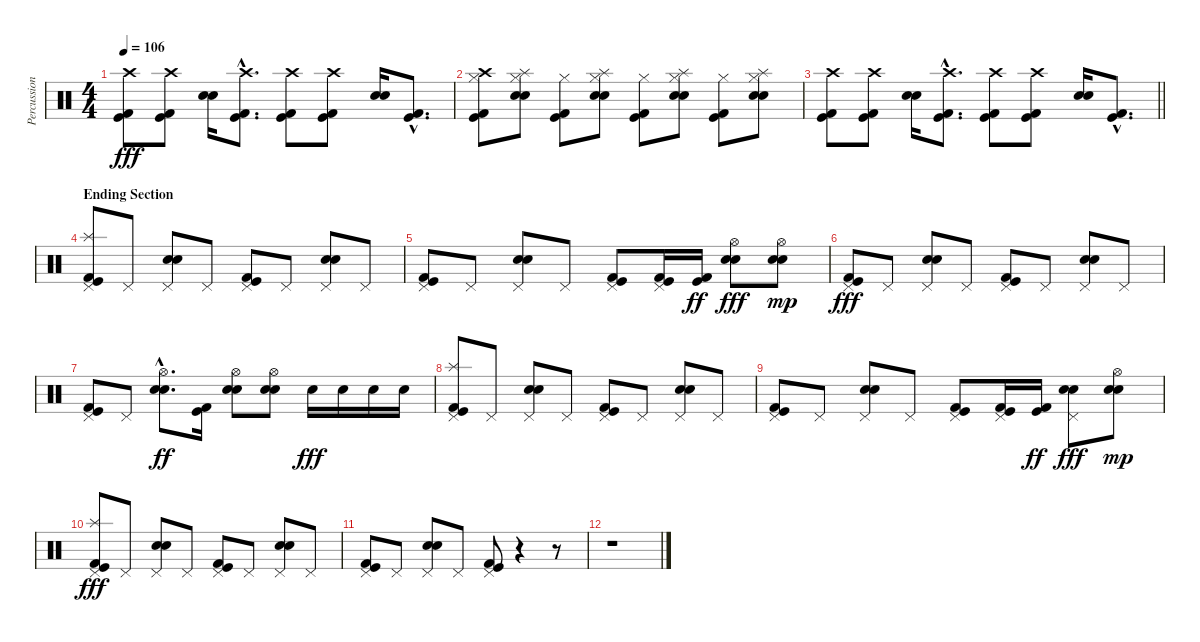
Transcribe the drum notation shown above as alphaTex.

\track ("Percussion" "Percussion") {instrument percussion}
\staff {score}
\articulation defaults
\ts (4 4)
\tempo 106
\clef neutral
\ks c
("Crash high (hit)" "Kick (hit)" "Kick (hit) 2").8{dy fff} ("Crash high (hit)" "Kick (hit)" "Kick (hit) 2").8 ("Snare (hit) 2" "Electric Snare (hit)").16 ("Crash high (hit)"{hac} "Kick (hit)"{hac} "Kick (hit) 2"{hac}).8{d} ("Crash high (hit)" "Kick (hit)" "Kick (hit) 2").8 ("Crash high (hit)" "Kick (hit)" "Kick (hit) 2").8 ("Snare (hit) 2" "Electric Snare (hit)").16 ("Kick (hit)"{hac} "Kick (hit) 2"{hac}).8{d} |
("Crash high (hit)" "Hi-Hat (closed)" "Kick (hit)" "Kick (hit) 2").8 ("Splash (hit)" "Electric Snare (hit)" "Snare (hit) 2" "Hi-Hat (closed)").8 ("Hi-Hat (closed)" "Kick (hit)" "Kick (hit) 2").8 ("Splash (hit)" "Electric Snare (hit)" "Snare (hit) 2" "Hi-Hat (closed)").8 ("Hi-Hat (closed)" "Kick (hit)" "Kick (hit) 2").8 ("Splash (hit)" "Electric Snare (hit)" "Snare (hit) 2" "Hi-Hat (closed)").8 ("Hi-Hat (closed)" "Kick (hit)" "Kick (hit) 2").8 ("Splash (hit)" "Electric Snare (hit)" "Snare (hit) 2" "Hi-Hat (closed)").8 |
\barLineRight lightlight
("Crash high (hit)" "Kick (hit)" "Kick (hit) 2").8 ("Crash high (hit)" "Kick (hit)" "Kick (hit) 2").8 ("Snare (hit) 2" "Electric Snare (hit)").16 ("Crash high (hit)"{hac} "Kick (hit)"{hac} "Kick (hit) 2"{hac}).8{d} ("Crash high (hit)" "Kick (hit)" "Kick (hit) 2").8 ("Crash high (hit)" "Kick (hit)" "Kick (hit) 2").8 ("Snare (hit) 2" "Electric Snare (hit)").16 ("Kick (hit)"{hac} "Kick (hit) 2"{hac}).8{d} |
\section ("" "Ending Section")
("Splash (hit)" "Pedal Hi-Hat (hit)" "Kick (hit)" "Kick (hit) 2").8 "Pedal Hi-Hat (hit)".8 ("Electric Snare (hit)" "Snare (hit) 2" "Pedal Hi-Hat (hit)").8 "Pedal Hi-Hat (hit)".8 ("Pedal Hi-Hat (hit)" "Kick (hit)" "Kick (hit) 2").8 "Pedal Hi-Hat (hit)".8 ("Electric Snare (hit)" "Snare (hit) 2" "Pedal Hi-Hat (hit)").8 "Pedal Hi-Hat (hit)".8 |
("Pedal Hi-Hat (hit)" "Kick (hit)" "Kick (hit) 2").8 "Pedal Hi-Hat (hit)".8 ("Electric Snare (hit)" "Snare (hit) 2" "Pedal Hi-Hat (hit)").8 "Pedal Hi-Hat (hit)".8 ("Pedal Hi-Hat (hit)" "Kick (hit)" "Kick (hit) 2").8 ("Pedal Hi-Hat (hit)" "Kick (hit)" "Kick (hit) 2").16 ("Kick (hit) 2" "Kick (hit)").16{dy ff} ("Electric Snare (hit)" "Snare (hit) 2" "Hi-Hat (open)").8{dy fff} ("Electric Snare (hit)" "Snare (hit) 2" "Hi-Hat (open)").8{dy mp} |
("Pedal Hi-Hat (hit)" "Kick (hit)" "Kick (hit) 2").8{dy fff} "Pedal Hi-Hat (hit)".8 ("Electric Snare (hit)" "Snare (hit) 2" "Pedal Hi-Hat (hit)").8 "Pedal Hi-Hat (hit)".8 ("Pedal Hi-Hat (hit)" "Kick (hit)" "Kick (hit) 2").8 "Pedal Hi-Hat (hit)".8 ("Electric Snare (hit)" "Snare (hit) 2" "Pedal Hi-Hat (hit)").8 "Pedal Hi-Hat (hit)".8 |
("Pedal Hi-Hat (hit)" "Kick (hit)" "Kick (hit) 2").8 "Pedal Hi-Hat (hit)".8 ("Electric Snare (hit)"{hac} "Snare (hit) 2"{hac} "Hi-Hat (open)"{hac}).8{d dy ff} ("Kick (hit)" "Kick (hit) 2").16 ("Electric Snare (hit)" "Snare (hit) 2" "Hi-Hat (open)").8 ("Electric Snare (hit)" "Snare (hit) 2" "Hi-Hat (open)").8 "Electric Snare (hit)".16{dy fff} "Electric Snare (hit)".16 "Snare (hit) 2".16 "Snare (hit) 2".16 |
("Splash (hit)" "Pedal Hi-Hat (hit)" "Kick (hit)" "Kick (hit) 2").8 "Pedal Hi-Hat (hit)".8 ("Electric Snare (hit)" "Snare (hit) 2" "Pedal Hi-Hat (hit)").8 "Pedal Hi-Hat (hit)".8 ("Pedal Hi-Hat (hit)" "Kick (hit)" "Kick (hit) 2").8 "Pedal Hi-Hat (hit)".8 ("Electric Snare (hit)" "Snare (hit) 2" "Pedal Hi-Hat (hit)").8 "Pedal Hi-Hat (hit)".8 |
("Pedal Hi-Hat (hit)" "Kick (hit)" "Kick (hit) 2").8{volume 0} "Pedal Hi-Hat (hit)".8 ("Electric Snare (hit)" "Snare (hit) 2" "Pedal Hi-Hat (hit)").8 "Pedal Hi-Hat (hit)".8 ("Pedal Hi-Hat (hit)" "Kick (hit)" "Kick (hit) 2").8 ("Pedal Hi-Hat (hit)" "Kick (hit)" "Kick (hit) 2").16 ("Kick (hit) 2" "Kick (hit)").16{dy ff} ("Electric Snare (hit)" "Snare (hit) 2" "Pedal Hi-Hat (hit)").8{dy fff} ("Electric Snare (hit)" "Snare (hit) 2" "Hi-Hat (open)").8{dy mp} |
("Splash (hit)" "Pedal Hi-Hat (hit)" "Kick (hit)" "Kick (hit) 2").8{dy fff} "Pedal Hi-Hat (hit)".8 ("Electric Snare (hit)" "Snare (hit) 2" "Pedal Hi-Hat (hit)").8 "Pedal Hi-Hat (hit)".8 ("Pedal Hi-Hat (hit)" "Kick (hit)" "Kick (hit) 2").8 "Pedal Hi-Hat (hit)".8 ("Electric Snare (hit)" "Snare (hit) 2" "Pedal Hi-Hat (hit)").8 "Pedal Hi-Hat (hit)".8 |
("Pedal Hi-Hat (hit)" "Kick (hit)" "Kick (hit) 2").8 "Pedal Hi-Hat (hit)".8 ("Electric Snare (hit)" "Snare (hit) 2" "Pedal Hi-Hat (hit)").8 "Pedal Hi-Hat (hit)".8 ("Pedal Hi-Hat (hit)" "Kick (hit)" "Kick (hit) 2").8 r.4 r.8 |
r.1
